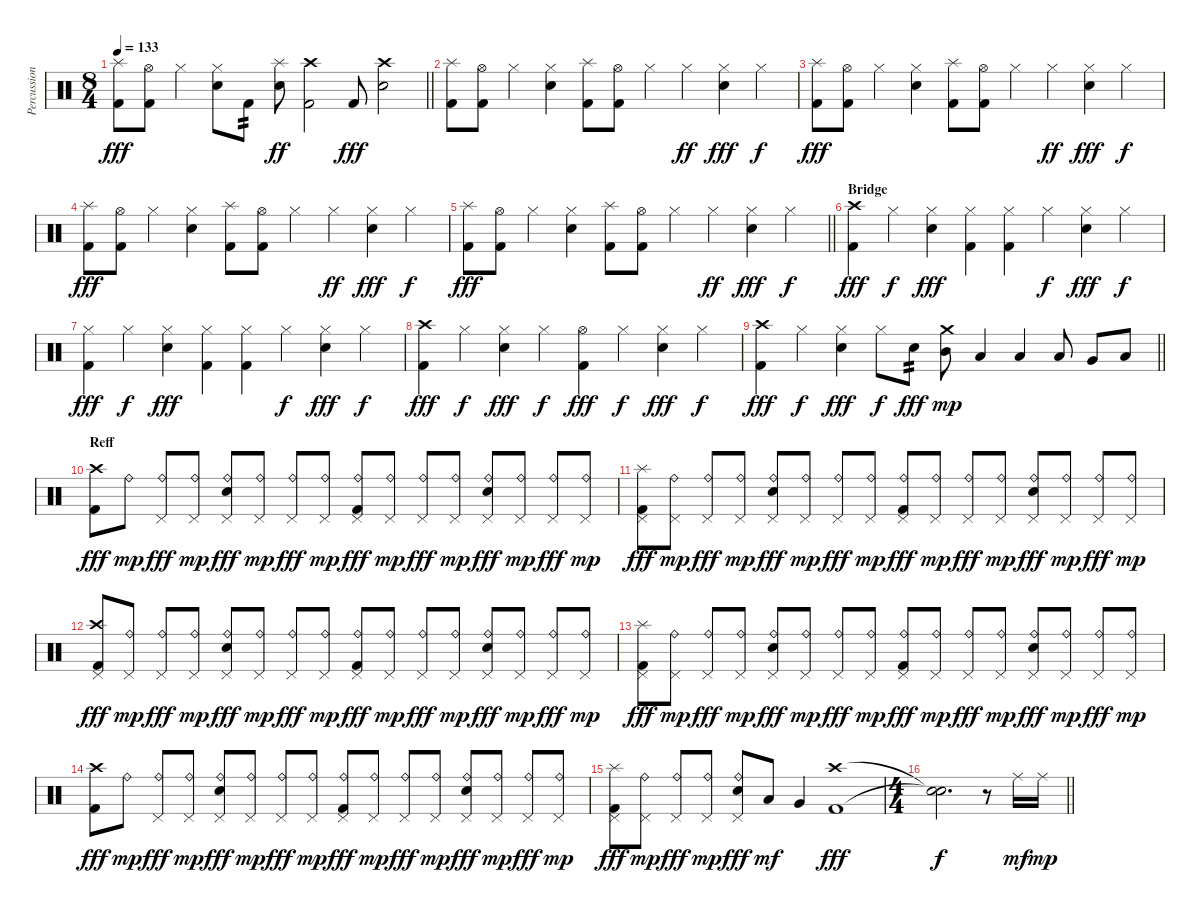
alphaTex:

\track ("Percussion" "Percussion") {instrument percussion}
\staff {score}
\articulation defaults
\ts (8 4)
\tempo 133
\clef neutral
\barLineRight lightlight
\ks c
("Splash (hit)" "Kick (hit) 2").8{dy fff} ("Hi-Hat (open)" "Kick (hit) 2").8 "Hi-Hat (closed)".4 ("Hi-Hat (closed)" "Electric Snare (hit)").8 "Kick (hit) 2".8{tp 2} ("Splash (hit)" "Electric Snare (hit)").8{dy ff} ("Crash high (hit)" "Kick (hit) 2").2 "Kick (hit) 2".8{dy fff} ("Crash high (hit)" "Electric Snare (hit)").2 |
("Splash (hit)" "Kick (hit) 2").8 ("Hi-Hat (open)" "Kick (hit) 2").8 "Hi-Hat (closed)".4 ("Hi-Hat (closed)" "Electric Snare (hit)").4 ("Splash (hit)" "Kick (hit) 2").8 ("Hi-Hat (open)" "Kick (hit) 2").8 "Hi-Hat (closed)".4 "Hi-Hat (closed)".4{dy ff} ("Hi-Hat (closed)" "Electric Snare (hit)").4{dy fff} "Hi-Hat (closed)".4{dy f} |
("Splash (hit)" "Kick (hit) 2").8{dy fff} ("Hi-Hat (open)" "Kick (hit) 2").8 "Hi-Hat (closed)".4 ("Hi-Hat (closed)" "Electric Snare (hit)").4 ("Splash (hit)" "Kick (hit) 2").8 ("Hi-Hat (open)" "Kick (hit) 2").8 "Hi-Hat (closed)".4 "Hi-Hat (closed)".4{dy ff} ("Hi-Hat (closed)" "Electric Snare (hit)").4{dy fff} "Hi-Hat (closed)".4{dy f} |
("Splash (hit)" "Kick (hit) 2").8{dy fff} ("Hi-Hat (open)" "Kick (hit) 2").8 "Hi-Hat (closed)".4 ("Hi-Hat (closed)" "Electric Snare (hit)").4 ("Splash (hit)" "Kick (hit) 2").8 ("Hi-Hat (open)" "Kick (hit) 2").8 "Hi-Hat (closed)".4 "Hi-Hat (closed)".4{dy ff} ("Hi-Hat (closed)" "Electric Snare (hit)").4{dy fff} "Hi-Hat (closed)".4{dy f} |
\barLineRight lightlight
("Splash (hit)" "Kick (hit) 2").8{dy fff} ("Hi-Hat (open)" "Kick (hit) 2").8 "Hi-Hat (closed)".4 ("Hi-Hat (closed)" "Electric Snare (hit)").4 ("Splash (hit)" "Kick (hit) 2").8 ("Hi-Hat (open)" "Kick (hit) 2").8 "Hi-Hat (closed)".4 "Hi-Hat (closed)".4{dy ff} ("Hi-Hat (closed)" "Electric Snare (hit)").4{dy fff} "Hi-Hat (closed)".4{dy f} |
\section ("" "Bridge")
("Crash high (hit)" "Kick (hit) 2").4{dy fff} "Hi-Hat (closed)".4{dy f} ("Hi-Hat (closed)" "Electric Snare (hit)").4{dy fff} ("Hi-Hat (closed)" "Kick (hit) 2").4 ("Hi-Hat (closed)" "Kick (hit) 2").4 "Hi-Hat (closed)".4{dy f} ("Hi-Hat (closed)" "Electric Snare (hit)").4{dy fff} "Hi-Hat (closed)".4{dy f} |
("Hi-Hat (closed)" "Kick (hit) 2").4{dy fff} "Hi-Hat (closed)".4{dy f} ("Hi-Hat (closed)" "Electric Snare (hit)").4{dy fff} ("Hi-Hat (closed)" "Kick (hit) 2").4 ("Hi-Hat (closed)" "Kick (hit) 2").4 "Hi-Hat (closed)".4{dy f} ("Hi-Hat (closed)" "Electric Snare (hit)").4{dy fff} "Hi-Hat (closed)".4{dy f} |
("Crash high (hit)" "Kick (hit) 2").4{dy fff} "Hi-Hat (closed)".4{dy f} ("Hi-Hat (closed)" "Electric Snare (hit)").4{dy fff} "Hi-Hat (closed)".4{dy f} ("Hi-Hat (open)" "Kick (hit) 2").4{dy fff} "Hi-Hat (closed)".4{dy f} ("Hi-Hat (closed)" "Electric Snare (hit)").4{dy fff} "Hi-Hat (closed)".4{dy f} |
\barLineRight lightlight
("Crash high (hit)" "Kick (hit) 2").4{dy fff} "Hi-Hat (closed)".4{dy f} ("Hi-Hat (closed)" "Electric Snare (hit)").4{dy fff} "Hi-Hat (closed)".8{dy f} "Electric Snare (hit)".8{tp 2 dy fff} ("Crash medium (hit)" "Mid Tom (hit)").8{dy mp} "Low Tom (hit)".4 "Low Tom (hit)".4 "Low Floor Tom (hit)".8 "Very Low Tom (hit)".8 "Low Floor Tom (hit)".8 |
\section ("" "Reff")
("Crash high (hit)" "Kick (hit) 2").8{dy fff} "Ride (bell)".8{dy mp} ("Ride (bell)" "Pedal Hi-Hat (hit)").8{dy fff} ("Ride (bell)" "Pedal Hi-Hat (hit)").8{dy mp} ("Ride (bell)" "Pedal Hi-Hat (hit)" "Electric Snare (hit)").8{dy fff} ("Ride (bell)" "Pedal Hi-Hat (hit)").8{dy mp} ("Ride (bell)" "Pedal Hi-Hat (hit)").8{dy fff} ("Ride (bell)" "Pedal Hi-Hat (hit)").8{dy mp} ("Ride (bell)" "Pedal Hi-Hat (hit)" "Kick (hit) 2").8{dy fff} ("Ride (bell)" "Pedal Hi-Hat (hit)").8{dy mp} ("Ride (bell)" "Pedal Hi-Hat (hit)").8{dy fff} ("Ride (bell)" "Pedal Hi-Hat (hit)").8{dy mp} ("Ride (bell)" "Pedal Hi-Hat (hit)" "Electric Snare (hit)").8{dy fff} ("Ride (bell)" "Pedal Hi-Hat (hit)").8{dy mp} ("Ride (bell)" "Pedal Hi-Hat (hit)").8{dy fff} ("Ride (bell)" "Pedal Hi-Hat (hit)").8{dy mp} |
("Splash (hit)" "Pedal Hi-Hat (hit)" "Kick (hit) 2").8{dy fff} ("Ride (bell)" "Pedal Hi-Hat (hit)").8{dy mp} ("Ride (bell)" "Pedal Hi-Hat (hit)").8{dy fff} ("Ride (bell)" "Pedal Hi-Hat (hit)").8{dy mp} ("Ride (bell)" "Pedal Hi-Hat (hit)" "Electric Snare (hit)").8{dy fff} ("Ride (bell)" "Pedal Hi-Hat (hit)").8{dy mp} ("Ride (bell)" "Pedal Hi-Hat (hit)").8{dy fff} ("Ride (bell)" "Pedal Hi-Hat (hit)").8{dy mp} ("Ride (bell)" "Pedal Hi-Hat (hit)" "Kick (hit) 2").8{dy fff} ("Ride (bell)" "Pedal Hi-Hat (hit)").8{dy mp} ("Ride (bell)" "Pedal Hi-Hat (hit)").8{dy fff} ("Ride (bell)" "Pedal Hi-Hat (hit)").8{dy mp} ("Ride (bell)" "Pedal Hi-Hat (hit)" "Electric Snare (hit)").8{dy fff} ("Ride (bell)" "Pedal Hi-Hat (hit)").8{dy mp} ("Ride (bell)" "Pedal Hi-Hat (hit)").8{dy fff} ("Ride (bell)" "Pedal Hi-Hat (hit)").8{dy mp} |
("Crash high (hit)" "Pedal Hi-Hat (hit)" "Kick (hit) 2").8{dy fff} ("Ride (bell)" "Pedal Hi-Hat (hit)").8{dy mp} ("Ride (bell)" "Pedal Hi-Hat (hit)").8{dy fff} ("Ride (bell)" "Pedal Hi-Hat (hit)").8{dy mp} ("Ride (bell)" "Pedal Hi-Hat (hit)" "Electric Snare (hit)").8{dy fff} ("Ride (bell)" "Pedal Hi-Hat (hit)").8{dy mp} ("Ride (bell)" "Pedal Hi-Hat (hit)").8{dy fff} ("Ride (bell)" "Pedal Hi-Hat (hit)").8{dy mp} ("Ride (bell)" "Pedal Hi-Hat (hit)" "Kick (hit) 2").8{dy fff} ("Ride (bell)" "Pedal Hi-Hat (hit)").8{dy mp} ("Ride (bell)" "Pedal Hi-Hat (hit)").8{dy fff} ("Ride (bell)" "Pedal Hi-Hat (hit)").8{dy mp} ("Ride (bell)" "Pedal Hi-Hat (hit)" "Electric Snare (hit)").8{dy fff} ("Ride (bell)" "Pedal Hi-Hat (hit)").8{dy mp} ("Ride (bell)" "Pedal Hi-Hat (hit)").8{dy fff} ("Ride (bell)" "Pedal Hi-Hat (hit)").8{dy mp} |
("Splash (hit)" "Pedal Hi-Hat (hit)" "Kick (hit) 2").8{dy fff} ("Ride (bell)" "Pedal Hi-Hat (hit)").8{dy mp} ("Ride (bell)" "Pedal Hi-Hat (hit)").8{dy fff} ("Ride (bell)" "Pedal Hi-Hat (hit)").8{dy mp} ("Ride (bell)" "Pedal Hi-Hat (hit)" "Electric Snare (hit)").8{dy fff} ("Ride (bell)" "Pedal Hi-Hat (hit)").8{dy mp} ("Ride (bell)" "Pedal Hi-Hat (hit)").8{dy fff} ("Ride (bell)" "Pedal Hi-Hat (hit)").8{dy mp} ("Ride (bell)" "Pedal Hi-Hat (hit)" "Kick (hit) 2").8{dy fff} ("Ride (bell)" "Pedal Hi-Hat (hit)").8{dy mp} ("Ride (bell)" "Pedal Hi-Hat (hit)").8{dy fff} ("Ride (bell)" "Pedal Hi-Hat (hit)").8{dy mp} ("Ride (bell)" "Pedal Hi-Hat (hit)" "Electric Snare (hit)").8{dy fff} ("Ride (bell)" "Pedal Hi-Hat (hit)").8{dy mp} ("Ride (bell)" "Pedal Hi-Hat (hit)").8{dy fff} ("Ride (bell)" "Pedal Hi-Hat (hit)").8{dy mp} |
("Crash high (hit)" "Kick (hit) 2").8{dy fff} "Ride (bell)".8{dy mp} ("Ride (bell)" "Pedal Hi-Hat (hit)").8{dy fff} ("Ride (bell)" "Pedal Hi-Hat (hit)").8{dy mp} ("Ride (bell)" "Pedal Hi-Hat (hit)" "Electric Snare (hit)").8{dy fff} ("Ride (bell)" "Pedal Hi-Hat (hit)").8{dy mp} ("Ride (bell)" "Pedal Hi-Hat (hit)").8{dy fff} ("Ride (bell)" "Pedal Hi-Hat (hit)").8{dy mp} ("Ride (bell)" "Pedal Hi-Hat (hit)" "Kick (hit) 2").8{dy fff} ("Ride (bell)" "Pedal Hi-Hat (hit)").8{dy mp} ("Ride (bell)" "Pedal Hi-Hat (hit)").8{dy fff} ("Ride (bell)" "Pedal Hi-Hat (hit)").8{dy mp} ("Ride (bell)" "Pedal Hi-Hat (hit)" "Electric Snare (hit)").8{dy fff} ("Ride (bell)" "Pedal Hi-Hat (hit)").8{dy mp} ("Ride (bell)" "Pedal Hi-Hat (hit)").8{dy fff} ("Ride (bell)" "Pedal Hi-Hat (hit)").8{dy mp} |
("Splash (hit)" "Pedal Hi-Hat (hit)" "Kick (hit) 2").8{dy fff} ("Ride (bell)" "Pedal Hi-Hat (hit)").8{dy mp} ("Ride (bell)" "Pedal Hi-Hat (hit)").8{dy fff} ("Ride (bell)" "Pedal Hi-Hat (hit)").8{dy mp} ("Ride (bell)" "Pedal Hi-Hat (hit)" "Electric Snare (hit)").8{dy fff} "Low Tom (hit)".8{dy mf} "Very Low Tom (hit)".4 ("Crash high (hit)" "Kick (hit) 2").1{dy fff} |
\ts (4 4)
\barLineRight lightlight
("Snare (hit)"{t} "Snare (hit)"{t}).2{d dy f} r.8 "Ride (middle)".16{dy mf} "Ride (middle)".16{dy mp}
